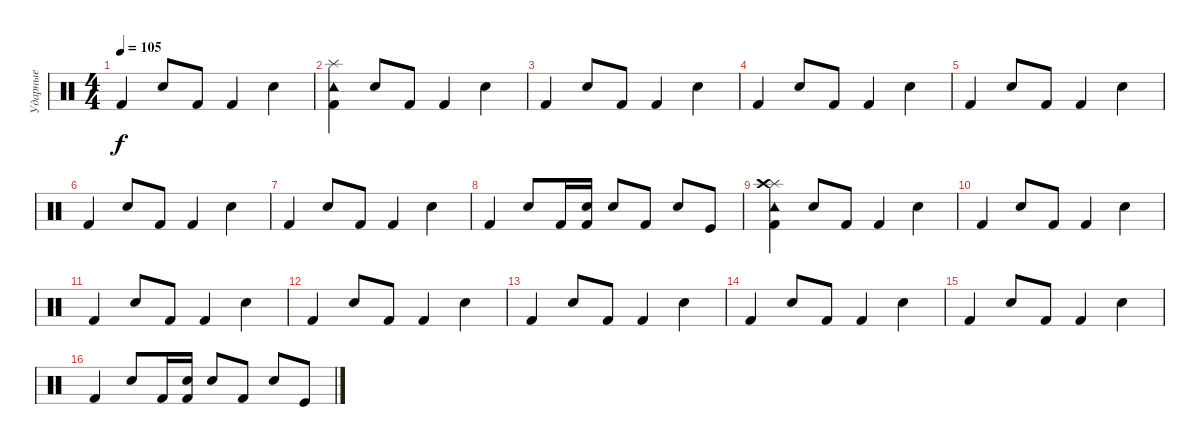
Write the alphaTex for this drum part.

\track ("Ударные" "Ударные") {instrument percussion}
\staff {score}
\articulation defaults
\ts (4 4)
\tempo 105
\clef neutral
\ks c "Kick (hit) 2".4{dy f} "Snare (hit) 2".8 "Kick (hit) 2".8 "Kick (hit) 2".4 "Snare (hit) 2".4
|
("Tambourine (hit)" "Kick (hit) 2" "Splash (hit)").4 "Snare (hit) 2".8 "Kick (hit) 2".8 "Kick (hit) 2".4 "Snare (hit) 2".4 |
"Kick (hit) 2".4 "Snare (hit) 2".8 "Kick (hit) 2".8 "Kick (hit) 2".4 "Snare (hit) 2".4 |
"Kick (hit) 2".4 "Snare (hit) 2".8 "Kick (hit) 2".8 "Kick (hit) 2".4 "Snare (hit) 2".4 |
"Kick (hit) 2".4 "Snare (hit) 2".8 "Kick (hit) 2".8 "Kick (hit) 2".4 "Snare (hit) 2".4 |
"Kick (hit) 2".4 "Snare (hit) 2".8 "Kick (hit) 2".8 "Kick (hit) 2".4 "Snare (hit) 2".4 |
"Kick (hit) 2".4 "Snare (hit) 2".8 "Kick (hit) 2".8 "Kick (hit) 2".4 "Snare (hit) 2".4 |
"Kick (hit) 2".4 "Snare (hit) 2".8 "Kick (hit) 2".16 ("Kick (hit) 2" "Snare (hit) 2").16 "Snare (hit) 2".8 "Kick (hit) 2".8 "Snare (hit) 2".8 "Kick (hit)".8 |
("Tambourine (hit)" "Kick (hit) 2" "Splash (hit)" "Crash high (hit)").4 "Snare (hit) 2".8 "Kick (hit) 2".8 "Kick (hit) 2".4 "Snare (hit) 2".4 |
"Kick (hit) 2".4 "Snare (hit) 2".8 "Kick (hit) 2".8 "Kick (hit) 2".4 "Snare (hit) 2".4 |
"Kick (hit) 2".4 "Snare (hit) 2".8 "Kick (hit) 2".8 "Kick (hit) 2".4 "Snare (hit) 2".4 |
"Kick (hit) 2".4 "Snare (hit) 2".8 "Kick (hit) 2".8 "Kick (hit) 2".4 "Snare (hit) 2".4 |
"Kick (hit) 2".4 "Snare (hit) 2".8 "Kick (hit) 2".8 "Kick (hit) 2".4 "Snare (hit) 2".4 |
"Kick (hit) 2".4 "Snare (hit) 2".8 "Kick (hit) 2".8 "Kick (hit) 2".4 "Snare (hit) 2".4 |
"Kick (hit) 2".4 "Snare (hit) 2".8 "Kick (hit) 2".8 "Kick (hit) 2".4 "Snare (hit) 2".4 |
"Kick (hit) 2".4 "Snare (hit) 2".8 "Kick (hit) 2".16 ("Kick (hit) 2" "Snare (hit) 2").16 "Snare (hit) 2".8 "Kick (hit) 2".8 "Snare (hit) 2".8 "Kick (hit)".8
